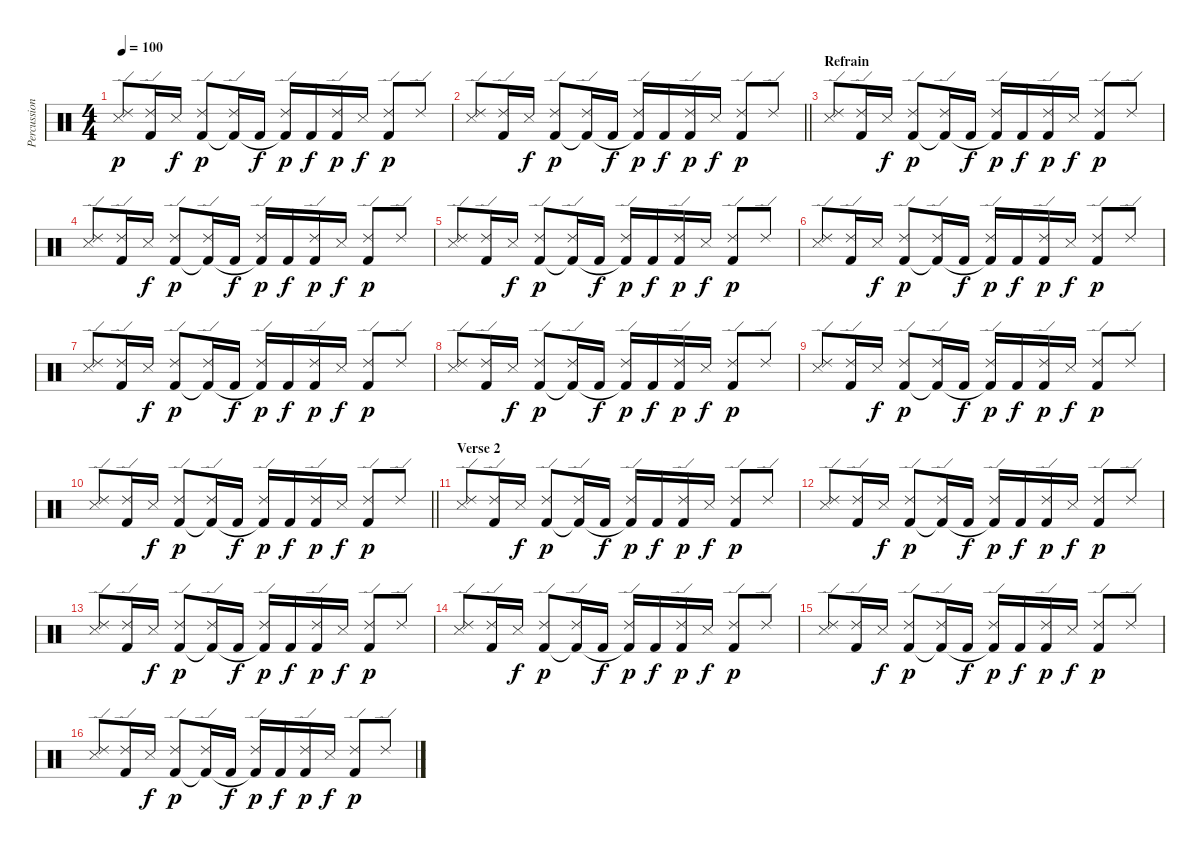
\track ("Percussion" "Percussion") {instrument percussion}
\staff {score}
\articulation defaults
\ts (4 4)
\tempo 100
\clef neutral
\ks c
("Ride (edge) 2" "Snare (side stick) 3").8{dy p} ("Ride (edge) 2" "Kick (hit) 2").16 "Snare (side stick) 3".16{dy f} ("Ride (edge) 2" "Kick (hit) 2").8{dy p} ("Ride (edge) 2" "Kick (hit) 2"{t}).16 "Kick (hit) 2".16{dy f} ("Ride (edge) 2" "Kick (hit) 2"{t}).16{dy p} "Kick (hit) 2".16{dy f} ("Ride (edge) 2" "Kick (hit) 2").16{dy p} "Snare (side stick) 3".16{dy f} ("Ride (edge) 2" "Kick (hit) 2").8{dy p} "Ride (edge) 2".8 |
\barLineRight lightlight
("Ride (edge) 2" "Snare (side stick) 3").8 ("Ride (edge) 2" "Kick (hit) 2").16 "Snare (side stick) 3".16{dy f} ("Ride (edge) 2" "Kick (hit) 2").8{dy p} ("Ride (edge) 2" "Kick (hit) 2"{t}).16 "Kick (hit) 2".16{dy f} ("Ride (edge) 2" "Kick (hit) 2"{t}).16{dy p} "Kick (hit) 2".16{dy f} ("Ride (edge) 2" "Kick (hit) 2").16{dy p} "Snare (side stick) 3".16{dy f} ("Ride (edge) 2" "Kick (hit) 2").8{dy p} "Ride (edge) 2".8 |
\section ("" "Refrain")
("Ride (edge) 2" "Snare (side stick) 3").8 ("Ride (edge) 2" "Kick (hit) 2").16 "Snare (side stick) 3".16{dy f} ("Ride (edge) 2" "Kick (hit) 2").8{dy p} ("Ride (edge) 2" "Kick (hit) 2"{t}).16 "Kick (hit) 2".16{dy f} ("Ride (edge) 2" "Kick (hit) 2"{t}).16{dy p} "Kick (hit) 2".16{dy f} ("Ride (edge) 2" "Kick (hit) 2").16{dy p} "Snare (side stick) 3".16{dy f} ("Ride (edge) 2" "Kick (hit) 2").8{dy p} "Ride (edge) 2".8 |
("Ride (edge) 2" "Snare (side stick) 3").8 ("Ride (edge) 2" "Kick (hit) 2").16 "Snare (side stick) 3".16{dy f} ("Ride (edge) 2" "Kick (hit) 2").8{dy p} ("Ride (edge) 2" "Kick (hit) 2"{t}).16 "Kick (hit) 2".16{dy f} ("Ride (edge) 2" "Kick (hit) 2"{t}).16{dy p} "Kick (hit) 2".16{dy f} ("Ride (edge) 2" "Kick (hit) 2").16{dy p} "Snare (side stick) 3".16{dy f} ("Ride (edge) 2" "Kick (hit) 2").8{dy p} "Ride (edge) 2".8 |
("Ride (edge) 2" "Snare (side stick) 3").8 ("Ride (edge) 2" "Kick (hit) 2").16 "Snare (side stick) 3".16{dy f} ("Ride (edge) 2" "Kick (hit) 2").8{dy p} ("Ride (edge) 2" "Kick (hit) 2"{t}).16 "Kick (hit) 2".16{dy f} ("Ride (edge) 2" "Kick (hit) 2"{t}).16{dy p} "Kick (hit) 2".16{dy f} ("Ride (edge) 2" "Kick (hit) 2").16{dy p} "Snare (side stick) 3".16{dy f} ("Ride (edge) 2" "Kick (hit) 2").8{dy p} "Ride (edge) 2".8 |
("Ride (edge) 2" "Snare (side stick) 3").8 ("Ride (edge) 2" "Kick (hit) 2").16 "Snare (side stick) 3".16{dy f} ("Ride (edge) 2" "Kick (hit) 2").8{dy p} ("Ride (edge) 2" "Kick (hit) 2"{t}).16 "Kick (hit) 2".16{dy f} ("Ride (edge) 2" "Kick (hit) 2"{t}).16{dy p} "Kick (hit) 2".16{dy f} ("Ride (edge) 2" "Kick (hit) 2").16{dy p} "Snare (side stick) 3".16{dy f} ("Ride (edge) 2" "Kick (hit) 2").8{dy p} "Ride (edge) 2".8 |
("Ride (edge) 2" "Snare (side stick) 3").8 ("Ride (edge) 2" "Kick (hit) 2").16 "Snare (side stick) 3".16{dy f} ("Ride (edge) 2" "Kick (hit) 2").8{dy p} ("Ride (edge) 2" "Kick (hit) 2"{t}).16 "Kick (hit) 2".16{dy f} ("Ride (edge) 2" "Kick (hit) 2"{t}).16{dy p} "Kick (hit) 2".16{dy f} ("Ride (edge) 2" "Kick (hit) 2").16{dy p} "Snare (side stick) 3".16{dy f} ("Ride (edge) 2" "Kick (hit) 2").8{dy p} "Ride (edge) 2".8 |
("Ride (edge) 2" "Snare (side stick) 3").8 ("Ride (edge) 2" "Kick (hit) 2").16 "Snare (side stick) 3".16{dy f} ("Ride (edge) 2" "Kick (hit) 2").8{dy p} ("Ride (edge) 2" "Kick (hit) 2"{t}).16 "Kick (hit) 2".16{dy f} ("Ride (edge) 2" "Kick (hit) 2"{t}).16{dy p} "Kick (hit) 2".16{dy f} ("Ride (edge) 2" "Kick (hit) 2").16{dy p} "Snare (side stick) 3".16{dy f} ("Ride (edge) 2" "Kick (hit) 2").8{dy p} "Ride (edge) 2".8 |
("Ride (edge) 2" "Snare (side stick) 3").8 ("Ride (edge) 2" "Kick (hit) 2").16 "Snare (side stick) 3".16{dy f} ("Ride (edge) 2" "Kick (hit) 2").8{dy p} ("Ride (edge) 2" "Kick (hit) 2"{t}).16 "Kick (hit) 2".16{dy f} ("Ride (edge) 2" "Kick (hit) 2"{t}).16{dy p} "Kick (hit) 2".16{dy f} ("Ride (edge) 2" "Kick (hit) 2").16{dy p} "Snare (side stick) 3".16{dy f} ("Ride (edge) 2" "Kick (hit) 2").8{dy p} "Ride (edge) 2".8 |
\barLineRight lightlight
("Ride (edge) 2" "Snare (side stick) 3").8 ("Ride (edge) 2" "Kick (hit) 2").16 "Snare (side stick) 3".16{dy f} ("Ride (edge) 2" "Kick (hit) 2").8{dy p} ("Ride (edge) 2" "Kick (hit) 2"{t}).16 "Kick (hit) 2".16{dy f} ("Ride (edge) 2" "Kick (hit) 2"{t}).16{dy p} "Kick (hit) 2".16{dy f} ("Ride (edge) 2" "Kick (hit) 2").16{dy p} "Snare (side stick) 3".16{dy f} ("Ride (edge) 2" "Kick (hit) 2").8{dy p} "Ride (edge) 2".8 |
\section ("" "Verse 2")
("Ride (edge) 2" "Snare (side stick) 3").8 ("Ride (edge) 2" "Kick (hit) 2").16 "Snare (side stick) 3".16{dy f} ("Ride (edge) 2" "Kick (hit) 2").8{dy p} ("Ride (edge) 2" "Kick (hit) 2"{t}).16 "Kick (hit) 2".16{dy f} ("Ride (edge) 2" "Kick (hit) 2"{t}).16{dy p} "Kick (hit) 2".16{dy f} ("Ride (edge) 2" "Kick (hit) 2").16{dy p} "Snare (side stick) 3".16{dy f} ("Ride (edge) 2" "Kick (hit) 2").8{dy p} "Ride (edge) 2".8 |
("Ride (edge) 2" "Snare (side stick) 3").8 ("Ride (edge) 2" "Kick (hit) 2").16 "Snare (side stick) 3".16{dy f} ("Ride (edge) 2" "Kick (hit) 2").8{dy p} ("Ride (edge) 2" "Kick (hit) 2"{t}).16 "Kick (hit) 2".16{dy f} ("Ride (edge) 2" "Kick (hit) 2"{t}).16{dy p} "Kick (hit) 2".16{dy f} ("Ride (edge) 2" "Kick (hit) 2").16{dy p} "Snare (side stick) 3".16{dy f} ("Ride (edge) 2" "Kick (hit) 2").8{dy p} "Ride (edge) 2".8 |
("Ride (edge) 2" "Snare (side stick) 3").8 ("Ride (edge) 2" "Kick (hit) 2").16 "Snare (side stick) 3".16{dy f} ("Ride (edge) 2" "Kick (hit) 2").8{dy p} ("Ride (edge) 2" "Kick (hit) 2"{t}).16 "Kick (hit) 2".16{dy f} ("Ride (edge) 2" "Kick (hit) 2"{t}).16{dy p} "Kick (hit) 2".16{dy f} ("Ride (edge) 2" "Kick (hit) 2").16{dy p} "Snare (side stick) 3".16{dy f} ("Ride (edge) 2" "Kick (hit) 2").8{dy p} "Ride (edge) 2".8 |
("Ride (edge) 2" "Snare (side stick) 3").8 ("Ride (edge) 2" "Kick (hit) 2").16 "Snare (side stick) 3".16{dy f} ("Ride (edge) 2" "Kick (hit) 2").8{dy p} ("Ride (edge) 2" "Kick (hit) 2"{t}).16 "Kick (hit) 2".16{dy f} ("Ride (edge) 2" "Kick (hit) 2"{t}).16{dy p} "Kick (hit) 2".16{dy f} ("Ride (edge) 2" "Kick (hit) 2").16{dy p} "Snare (side stick) 3".16{dy f} ("Ride (edge) 2" "Kick (hit) 2").8{dy p} "Ride (edge) 2".8 |
("Ride (edge) 2" "Snare (side stick) 3").8 ("Ride (edge) 2" "Kick (hit) 2").16 "Snare (side stick) 3".16{dy f} ("Ride (edge) 2" "Kick (hit) 2").8{dy p} ("Ride (edge) 2" "Kick (hit) 2"{t}).16 "Kick (hit) 2".16{dy f} ("Ride (edge) 2" "Kick (hit) 2"{t}).16{dy p} "Kick (hit) 2".16{dy f} ("Ride (edge) 2" "Kick (hit) 2").16{dy p} "Snare (side stick) 3".16{dy f} ("Ride (edge) 2" "Kick (hit) 2").8{dy p} "Ride (edge) 2".8 |
("Ride (edge) 2" "Snare (side stick) 3").8 ("Ride (edge) 2" "Kick (hit) 2").16 "Snare (side stick) 3".16{dy f} ("Ride (edge) 2" "Kick (hit) 2").8{dy p} ("Ride (edge) 2" "Kick (hit) 2"{t}).16 "Kick (hit) 2".16{dy f} ("Ride (edge) 2" "Kick (hit) 2"{t}).16{dy p} "Kick (hit) 2".16{dy f} ("Ride (edge) 2" "Kick (hit) 2").16{dy p} "Snare (side stick) 3".16{dy f} ("Ride (edge) 2" "Kick (hit) 2").8{dy p} "Ride (edge) 2".8
